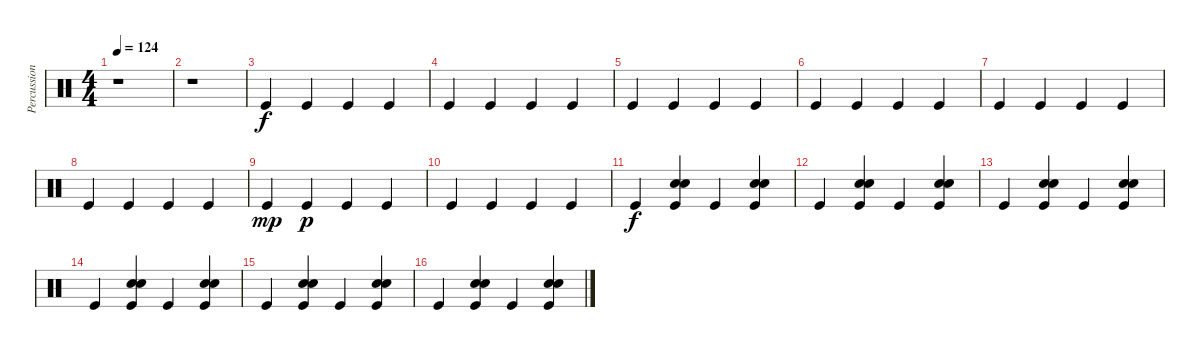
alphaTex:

\track ("Percussion" "Percussion") {instrument percussion}
\staff {score}
\articulation defaults
\ts (4 4)
\tempo 124
\clef neutral
\ks c
r.1{dy f} |
r.1 |
"Kick (hit)".4 "Kick (hit)".4 "Kick (hit)".4 "Kick (hit)".4 |
"Kick (hit)".4 "Kick (hit)".4 "Kick (hit)".4 "Kick (hit)".4 |
"Kick (hit)".4 "Kick (hit)".4 "Kick (hit)".4 "Kick (hit)".4 |
"Kick (hit)".4 "Kick (hit)".4 "Kick (hit)".4 "Kick (hit)".4 |
"Kick (hit)".4 "Kick (hit)".4 "Kick (hit)".4 "Kick (hit)".4 |
"Kick (hit)".4 "Kick (hit)".4 "Kick (hit)".4 "Kick (hit)".4 |
"Kick (hit)".4{dy mp} "Kick (hit)".4{dy p} "Kick (hit)".4 "Kick (hit)".4 |
"Kick (hit)".4 "Kick (hit)".4 "Kick (hit)".4 "Kick (hit)".4 |
"Kick (hit)".4{dy f} ("Snare (hit) 2" "Hand Clap (hit)" "Kick (hit)").4 "Kick (hit)".4 ("Snare (hit) 2" "Hand Clap (hit)" "Kick (hit)").4 |
"Kick (hit)".4 ("Snare (hit) 2" "Hand Clap (hit)" "Kick (hit)").4 "Kick (hit)".4 ("Snare (hit) 2" "Hand Clap (hit)" "Kick (hit)").4 |
"Kick (hit)".4 ("Snare (hit) 2" "Hand Clap (hit)" "Kick (hit)").4 "Kick (hit)".4 ("Snare (hit) 2" "Hand Clap (hit)" "Kick (hit)").4 |
"Kick (hit)".4 ("Snare (hit) 2" "Hand Clap (hit)" "Kick (hit)").4 "Kick (hit)".4 ("Snare (hit) 2" "Hand Clap (hit)" "Kick (hit)").4 |
"Kick (hit)".4 ("Snare (hit) 2" "Hand Clap (hit)" "Kick (hit)").4 "Kick (hit)".4 ("Snare (hit) 2" "Hand Clap (hit)" "Kick (hit)").4 |
"Kick (hit)".4 ("Snare (hit) 2" "Hand Clap (hit)" "Kick (hit)").4 "Kick (hit)".4 ("Snare (hit) 2" "Hand Clap (hit)" "Kick (hit)").4
